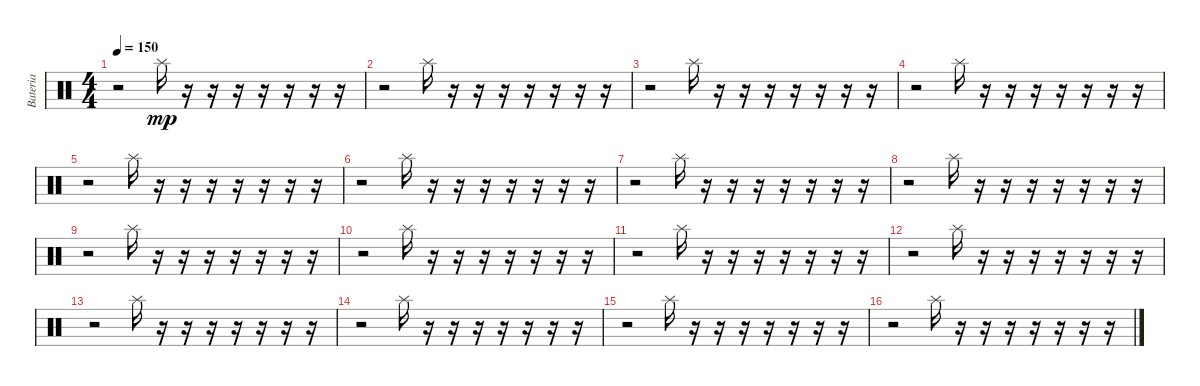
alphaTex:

\track ("Bateria" "Bateria") {instrument percussion}
\staff {score}
\articulation defaults
\ts (4 4)
\tempo 150
\clef neutral
\ks c
r.2{dy mp} "Splash (hit)".16 r.16 r.16 r.16 r.16 r.16 r.16 r.16 |
r.2 "Splash (hit)".16 r.16 r.16 r.16 r.16 r.16 r.16 r.16 |
r.2 "Splash (hit)".16 r.16 r.16 r.16 r.16 r.16 r.16 r.16 |
r.2 "Splash (hit)".16 r.16 r.16 r.16 r.16 r.16 r.16 r.16 |
r.2 "Splash (hit)".16 r.16 r.16 r.16 r.16 r.16 r.16 r.16 |
r.2 "Splash (hit)".16 r.16 r.16 r.16 r.16 r.16 r.16 r.16 |
r.2 "Splash (hit)".16 r.16 r.16 r.16 r.16 r.16 r.16 r.16 |
r.2 "Splash (hit)".16 r.16 r.16 r.16 r.16 r.16 r.16 r.16 |
r.2 "Splash (hit)".16 r.16 r.16 r.16 r.16 r.16 r.16 r.16 |
r.2 "Splash (hit)".16 r.16 r.16 r.16 r.16 r.16 r.16 r.16 |
r.2 "Splash (hit)".16 r.16 r.16 r.16 r.16 r.16 r.16 r.16 |
r.2 "Splash (hit)".16 r.16 r.16 r.16 r.16 r.16 r.16 r.16 |
r.2 "Splash (hit)".16 r.16 r.16 r.16 r.16 r.16 r.16 r.16 |
r.2 "Splash (hit)".16 r.16 r.16 r.16 r.16 r.16 r.16 r.16 |
r.2 "Splash (hit)".16 r.16 r.16 r.16 r.16 r.16 r.16 r.16 |
r.2 "Splash (hit)".16 r.16 r.16 r.16 r.16 r.16 r.16 r.16
